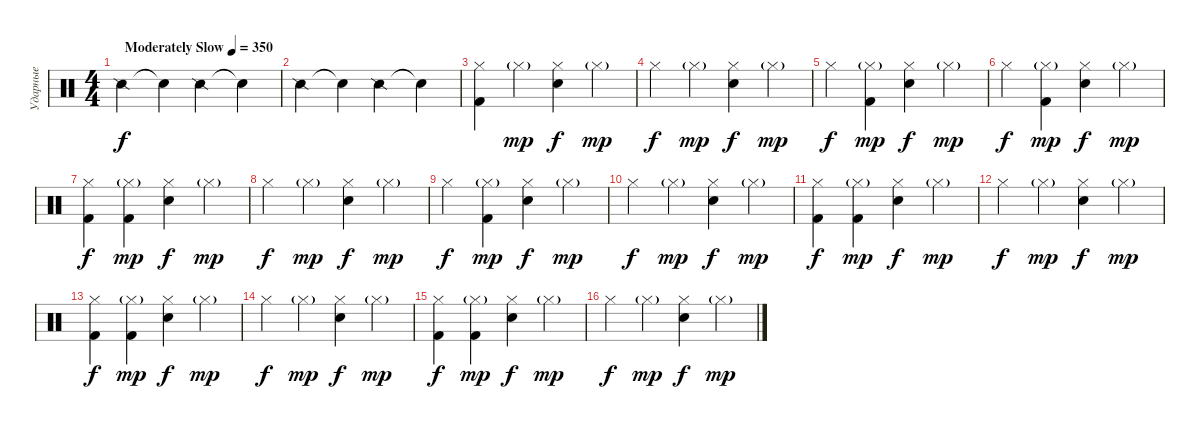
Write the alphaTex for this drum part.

\track ("Ударные" "Ударные") {instrument percussion}
\staff {score}
\articulation defaults
\ts (4 4)
\tempo (350 "Moderately Slow")
\clef neutral
\ks c "Snare (side stick) 2".4{dy f} "Snare (hit)"{t}.4 "Snare (side stick) 2".4 "Snare (hit)"{t}.4
|
"Snare (side stick) 2".4 "Snare (hit)"{t}.4 "Snare (side stick) 2".4 "Snare (hit)"{t}.4 |
("Hi-Hat (closed)" "Kick (hit) 2").4 "Hi-Hat (closed)"{g}.4{dy mp} ("Hi-Hat (closed)" "Electric Snare (hit)").4{dy f} "Hi-Hat (closed)"{g}.4{dy mp} |
"Hi-Hat (closed)".4{dy f} "Hi-Hat (closed)"{g}.4{dy mp} ("Hi-Hat (closed)" "Electric Snare (hit)").4{dy f} "Hi-Hat (closed)"{g}.4{dy mp} |
"Hi-Hat (closed)".4{dy f} ("Hi-Hat (closed)"{g} "Kick (hit) 2").4{dy mp} ("Hi-Hat (closed)" "Electric Snare (hit)").4{dy f} "Hi-Hat (closed)"{g}.4{dy mp} |
"Hi-Hat (closed)".4{dy f} ("Hi-Hat (closed)"{g} "Kick (hit) 2").4{dy mp} ("Hi-Hat (closed)" "Electric Snare (hit)").4{dy f} "Hi-Hat (closed)"{g}.4{dy mp} |
("Hi-Hat (closed)" "Kick (hit) 2").4{dy f} ("Hi-Hat (closed)"{g} "Kick (hit) 2").4{dy mp} ("Hi-Hat (closed)" "Electric Snare (hit)").4{dy f} "Hi-Hat (closed)"{g}.4{dy mp} |
"Hi-Hat (closed)".4{dy f} "Hi-Hat (closed)"{g}.4{dy mp} ("Hi-Hat (closed)" "Electric Snare (hit)").4{dy f} "Hi-Hat (closed)"{g}.4{dy mp} |
"Hi-Hat (closed)".4{dy f} ("Hi-Hat (closed)"{g} "Kick (hit) 2").4{dy mp} ("Hi-Hat (closed)" "Electric Snare (hit)").4{dy f} "Hi-Hat (closed)"{g}.4{dy mp} |
"Hi-Hat (closed)".4{dy f} "Hi-Hat (closed)"{g}.4{dy mp} ("Hi-Hat (closed)" "Electric Snare (hit)").4{dy f} "Hi-Hat (closed)"{g}.4{dy mp} |
("Hi-Hat (closed)" "Kick (hit) 2").4{dy f} ("Hi-Hat (closed)"{g} "Kick (hit) 2").4{dy mp} ("Hi-Hat (closed)" "Electric Snare (hit)").4{dy f} "Hi-Hat (closed)"{g}.4{dy mp} |
"Hi-Hat (closed)".4{dy f} "Hi-Hat (closed)"{g}.4{dy mp} ("Hi-Hat (closed)" "Electric Snare (hit)").4{dy f} "Hi-Hat (closed)"{g}.4{dy mp} |
("Hi-Hat (closed)" "Kick (hit) 2").4{dy f} ("Hi-Hat (closed)"{g} "Kick (hit) 2").4{dy mp} ("Hi-Hat (closed)" "Electric Snare (hit)").4{dy f} "Hi-Hat (closed)"{g}.4{dy mp} |
"Hi-Hat (closed)".4{dy f} "Hi-Hat (closed)"{g}.4{dy mp} ("Hi-Hat (closed)" "Electric Snare (hit)").4{dy f} "Hi-Hat (closed)"{g}.4{dy mp} |
("Hi-Hat (closed)" "Kick (hit) 2").4{dy f} ("Hi-Hat (closed)"{g} "Kick (hit) 2").4{dy mp} ("Hi-Hat (closed)" "Electric Snare (hit)").4{dy f} "Hi-Hat (closed)"{g}.4{dy mp} |
"Hi-Hat (closed)".4{dy f} "Hi-Hat (closed)"{g}.4{dy mp} ("Hi-Hat (closed)" "Electric Snare (hit)").4{dy f} "Hi-Hat (closed)"{g}.4{dy mp}
